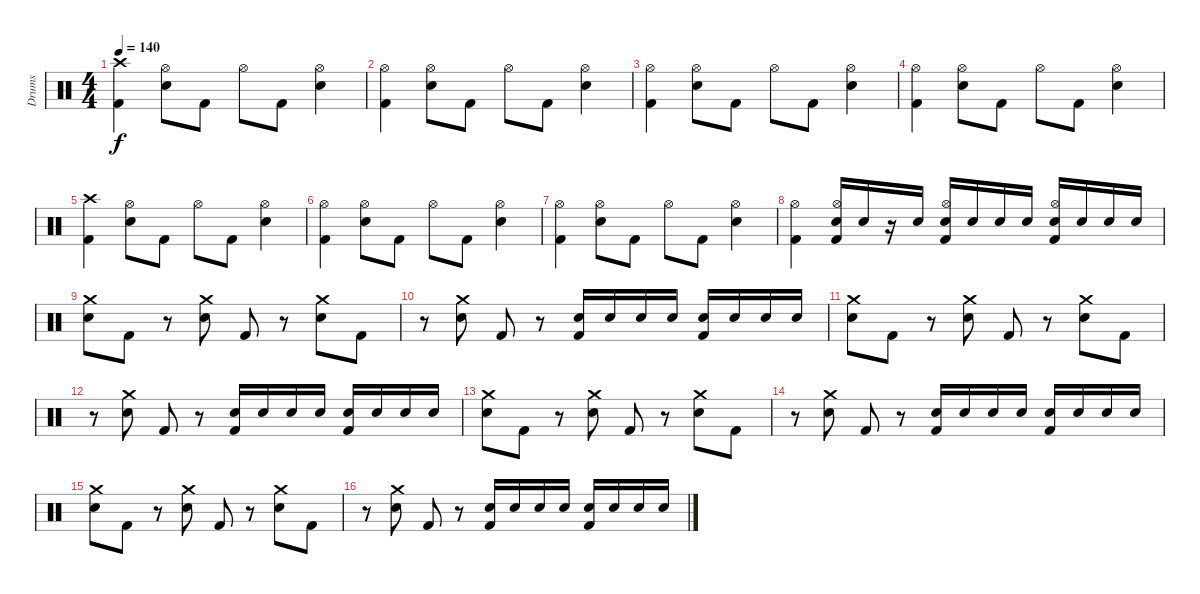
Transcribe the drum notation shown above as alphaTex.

\track ("Drums" "Drums") {instrument percussion}
\staff {score}
\articulation defaults
\ts (4 4)
\tempo 140
\clef neutral
\ks c
("Crash high (hit)" "Kick (hit) 2").4{dy f} ("Hi-Hat (open)" "Snare (hit) 2").8 "Kick (hit) 2".8 "Hi-Hat (open)".8 "Kick (hit) 2".8 ("Hi-Hat (open)" "Snare (hit) 2").4 |
("Hi-Hat (open)" "Kick (hit) 2").4 ("Hi-Hat (open)" "Snare (hit) 2").8 "Kick (hit) 2".8 "Hi-Hat (open)".8 "Kick (hit) 2".8 ("Hi-Hat (open)" "Snare (hit) 2").4 |
("Hi-Hat (open)" "Kick (hit) 2").4 ("Hi-Hat (open)" "Snare (hit) 2").8 "Kick (hit) 2".8 "Hi-Hat (open)".8 "Kick (hit) 2".8 ("Hi-Hat (open)" "Snare (hit) 2").4 |
("Hi-Hat (open)" "Kick (hit) 2").4 ("Hi-Hat (open)" "Snare (hit) 2").8 "Kick (hit) 2".8 "Hi-Hat (open)".8 "Kick (hit) 2".8 ("Hi-Hat (open)" "Snare (hit) 2").4 |
("Crash high (hit)" "Kick (hit) 2").4 ("Hi-Hat (open)" "Snare (hit) 2").8 "Kick (hit) 2".8 "Hi-Hat (open)".8 "Kick (hit) 2".8 ("Hi-Hat (open)" "Snare (hit) 2").4 |
("Hi-Hat (open)" "Kick (hit) 2").4 ("Hi-Hat (open)" "Snare (hit) 2").8 "Kick (hit) 2".8 "Hi-Hat (open)".8 "Kick (hit) 2".8 ("Hi-Hat (open)" "Snare (hit) 2").4 |
("Hi-Hat (open)" "Kick (hit) 2").4 ("Hi-Hat (open)" "Snare (hit) 2").8 "Kick (hit) 2".8 "Hi-Hat (open)".8 "Kick (hit) 2".8 ("Hi-Hat (open)" "Snare (hit) 2").4 |
("Hi-Hat (open)" "Kick (hit) 2").4 ("Hi-Hat (open)" "Snare (hit) 2" "Kick (hit) 2").16 "Snare (hit) 2".16 r.16 "Snare (hit) 2".16 ("Hi-Hat (open)" "Snare (hit) 2" "Kick (hit) 2").16 "Snare (hit) 2".16 "Snare (hit) 2".16 "Snare (hit) 2".16 ("Hi-Hat (open)" "Snare (hit) 2" "Kick (hit) 2").16 "Snare (hit) 2".16 "Snare (hit) 2".16 "Snare (hit) 2".16 |
("Crash medium (hit)" "Snare (hit) 2").8 "Kick (hit) 2".8 r.8 ("Crash medium (hit)" "Snare (hit) 2").8 "Kick (hit) 2".8 r.8 ("Crash medium (hit)" "Snare (hit) 2").8 "Kick (hit) 2".8 |
r.8 ("Crash medium (hit)" "Snare (hit) 2").8 "Kick (hit) 2".8 r.8 ("Snare (hit) 2" "Kick (hit) 2").16 "Snare (hit) 2".16 "Snare (hit) 2".16 "Snare (hit) 2".16 ("Snare (hit) 2" "Kick (hit) 2").16 "Snare (hit) 2".16 "Snare (hit) 2".16 "Snare (hit) 2".16 |
("Crash medium (hit)" "Snare (hit) 2").8 "Kick (hit) 2".8 r.8 ("Crash medium (hit)" "Snare (hit) 2").8 "Kick (hit) 2".8 r.8 ("Crash medium (hit)" "Snare (hit) 2").8 "Kick (hit) 2".8 |
r.8 ("Crash medium (hit)" "Snare (hit) 2").8 "Kick (hit) 2".8 r.8 ("Snare (hit) 2" "Kick (hit) 2").16 "Snare (hit) 2".16 "Snare (hit) 2".16 "Snare (hit) 2".16 ("Snare (hit) 2" "Kick (hit) 2").16 "Snare (hit) 2".16 "Snare (hit) 2".16 "Snare (hit) 2".16 |
("Crash medium (hit)" "Snare (hit) 2").8 "Kick (hit) 2".8 r.8 ("Crash medium (hit)" "Snare (hit) 2").8 "Kick (hit) 2".8 r.8 ("Crash medium (hit)" "Snare (hit) 2").8 "Kick (hit) 2".8 |
r.8 ("Crash medium (hit)" "Snare (hit) 2").8 "Kick (hit) 2".8 r.8 ("Snare (hit) 2" "Kick (hit) 2").16 "Snare (hit) 2".16 "Snare (hit) 2".16 "Snare (hit) 2".16 ("Snare (hit) 2" "Kick (hit) 2").16 "Snare (hit) 2".16 "Snare (hit) 2".16 "Snare (hit) 2".16 |
("Crash medium (hit)" "Snare (hit) 2").8 "Kick (hit) 2".8 r.8 ("Crash medium (hit)" "Snare (hit) 2").8 "Kick (hit) 2".8 r.8 ("Crash medium (hit)" "Snare (hit) 2").8 "Kick (hit) 2".8 |
r.8 ("Crash medium (hit)" "Snare (hit) 2").8 "Kick (hit) 2".8 r.8 ("Snare (hit) 2" "Kick (hit) 2").16 "Snare (hit) 2".16 "Snare (hit) 2".16 "Snare (hit) 2".16 ("Snare (hit) 2" "Kick (hit) 2").16 "Snare (hit) 2".16 "Snare (hit) 2".16 "Snare (hit) 2".16
